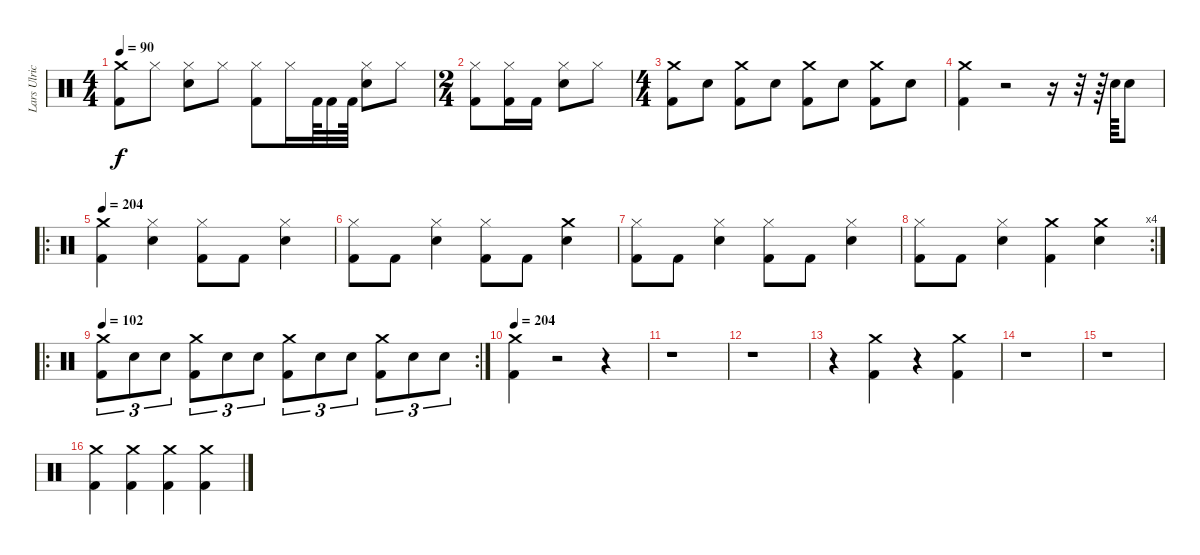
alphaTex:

\track ("Lars Ulrich (Drums)" "Lars Ulric") {instrument percussion}
\staff {score}
\articulation defaults
\ts (4 4)
\tempo 90
\clef neutral
\ks c
("Kick (hit) 2" "Crash medium (hit)").8{dy f} "Hi-Hat (closed)".8 ("Snare (hit) 2" "Hi-Hat (closed)").8 "Hi-Hat (closed)".8 ("Hi-Hat (closed)" "Kick (hit) 2").8 "Hi-Hat (closed)".16 "Kick (hit) 2".64 "Kick (hit) 2".32 "Kick (hit) 2".64 ("Hi-Hat (closed)" "Snare (hit) 2").8 "Hi-Hat (closed)".8 |
\ts (2 4)
("Kick (hit) 2" "Hi-Hat (closed)").8 ("Kick (hit) 2" "Hi-Hat (closed)").16 "Kick (hit) 2".16 ("Snare (hit) 2" "Hi-Hat (closed)").8 "Hi-Hat (closed)".8 |
\ts (4 4)
("Kick (hit) 2" "Crash medium (hit)").8 "Snare (hit) 2".8 ("Kick (hit) 2" "Crash medium (hit)").8 "Snare (hit) 2".8 ("Kick (hit) 2" "Crash medium (hit)").8 "Snare (hit) 2".8 ("Kick (hit) 2" "Crash medium (hit)").8 "Snare (hit) 2".8 |
("Kick (hit) 2" "Crash medium (hit)").4 r.2 r.16 r.32 r.64 "Snare (hit) 2".64 "Snare (hit) 2".8 |
\ro
\tempo 204
("Kick (hit) 2" "Crash medium (hit)").4 ("Hi-Hat (closed)" "Snare (hit) 2").4 ("Hi-Hat (closed)" "Kick (hit) 2").8 "Kick (hit) 2".8 ("Snare (hit) 2" "Hi-Hat (closed)").4 |
("Hi-Hat (closed)" "Kick (hit) 2").8 "Kick (hit) 2".8 ("Snare (hit) 2" "Hi-Hat (closed)").4 ("Hi-Hat (closed)" "Kick (hit) 2").8 "Kick (hit) 2".8 ("Crash medium (hit)" "Snare (hit) 2").4 |
("Hi-Hat (closed)" "Kick (hit) 2").8 "Kick (hit) 2".8 ("Snare (hit) 2" "Hi-Hat (closed)").4 ("Hi-Hat (closed)" "Kick (hit) 2").8 "Kick (hit) 2".8 ("Snare (hit) 2" "Hi-Hat (closed)").4 |
\rc 4
("Hi-Hat (closed)" "Kick (hit) 2").8 "Kick (hit) 2".8 ("Snare (hit) 2" "Hi-Hat (closed)").4 ("Crash medium (hit)" "Kick (hit) 2").4 ("Crash medium (hit)" "Snare (hit) 2").4 |
\ro
\rc 2
\tempo 102
("Kick (hit) 2" "Crash medium (hit)").8{tu (3 2)} "Snare (hit) 2".8{tu (3 2)} "Snare (hit) 2".8{tu (3 2)} ("Kick (hit) 2" "Crash medium (hit)").8{tu (3 2)} "Snare (hit) 2".8{tu (3 2)} "Snare (hit) 2".8{tu (3 2)} ("Kick (hit) 2" "Crash medium (hit)").8{tu (3 2)} "Snare (hit) 2".8{tu (3 2)} "Snare (hit) 2".8{tu (3 2)} ("Kick (hit) 2" "Crash medium (hit)").8{tu (3 2)} "Snare (hit) 2".8{tu (3 2)} "Snare (hit) 2".8{tu (3 2)} |
\tempo 204
("Kick (hit) 2" "Crash medium (hit)").4 r.2 r.4 |
r.1 |
r.1 |
r.4 ("Kick (hit) 2" "Crash medium (hit)").4 r.4 ("Kick (hit) 2" "Crash medium (hit)").4 |
r.1 |
r.1 |
("Kick (hit) 2" "Crash medium (hit)").4 ("Kick (hit) 2" "Crash medium (hit)").4 ("Kick (hit) 2" "Crash medium (hit)").4 ("Kick (hit) 2" "Crash medium (hit)").4
